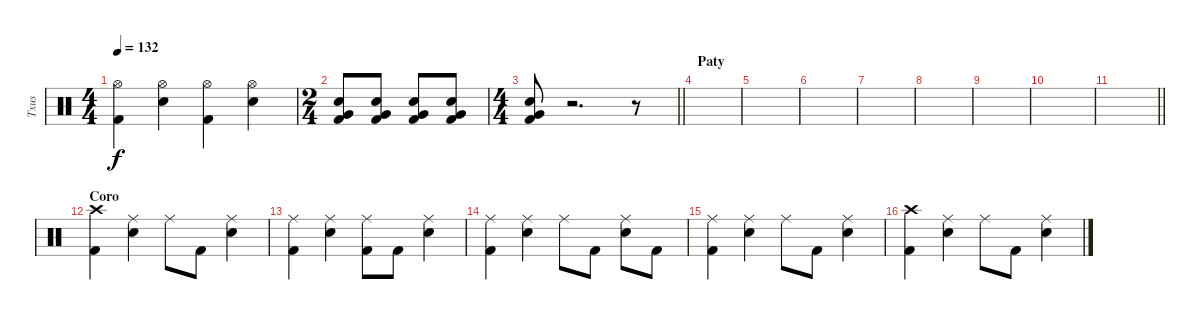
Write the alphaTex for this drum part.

\track ("Txus" "Txus") {instrument percussion}
\staff {score}
\articulation defaults
\ts (4 4)
\tempo 132
\clef neutral
\ks c
("Hi-Hat (open)" "Kick (hit) 2").4{dy f} ("Hi-Hat (open)" "Electric Snare (hit)").4 ("Hi-Hat (open)" "Kick (hit) 2").4 ("Hi-Hat (open)" "Electric Snare (hit)").4 |
\ts (2 4)
("Electric Snare (hit)" "Very Low Tom (hit)" "Kick (hit) 2").8 ("Electric Snare (hit)" "Very Low Tom (hit)" "Kick (hit) 2").8 ("Electric Snare (hit)" "Very Low Tom (hit)" "Kick (hit) 2").8 ("Electric Snare (hit)" "Very Low Tom (hit)" "Kick (hit) 2").8 |
\ts (4 4)
\barLineRight lightlight
("Electric Snare (hit)" "Very Low Tom (hit)" "Kick (hit) 2").8 r.2{d} r.8 |
\section ("" "Paty")
|
|
|
|
|
|
|
\barLineRight lightlight
|
\section ("" "Coro")
("Crash high (hit)" "Kick (hit) 2").4 ("Ride (middle)" "Electric Snare (hit)").4 "Ride (middle)".8 "Kick (hit) 2".8 ("Ride (middle)" "Electric Snare (hit)").4 |
("Ride (middle)" "Kick (hit) 2").4 ("Ride (middle)" "Electric Snare (hit)").4 ("Ride (middle)" "Kick (hit) 2").8 "Kick (hit) 2".8 ("Ride (middle)" "Electric Snare (hit)").4 |
("Ride (middle)" "Kick (hit) 2").4 ("Ride (middle)" "Electric Snare (hit)").4 "Ride (middle)".8 "Kick (hit) 2".8 ("Ride (middle)" "Electric Snare (hit)").8 "Kick (hit) 2".8 |
("Ride (middle)" "Kick (hit) 2").4 ("Ride (middle)" "Electric Snare (hit)").4 "Ride (middle)".8 "Kick (hit) 2".8 ("Ride (middle)" "Electric Snare (hit)").4 |
("Crash high (hit)" "Kick (hit) 2").4 ("Ride (middle)" "Electric Snare (hit)").4 "Ride (middle)".8 "Kick (hit) 2".8 ("Ride (middle)" "Electric Snare (hit)").4
